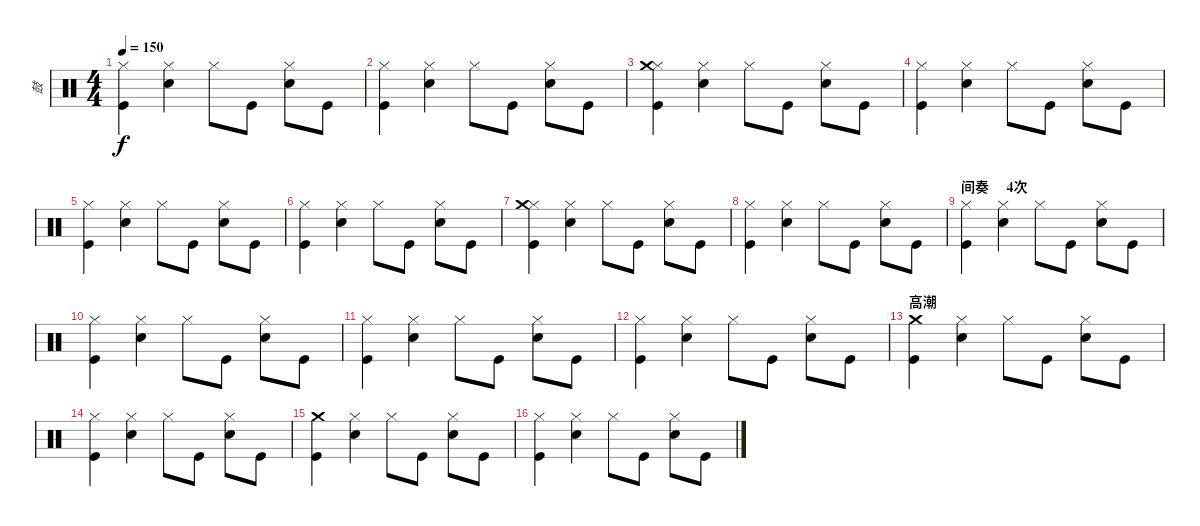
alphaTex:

\track ("鼓" "鼓") {instrument percussion}
\staff {score}
\articulation defaults
\ts (4 4)
\tempo 150
\clef neutral
\ks c
("Kick (hit)" "Hi-Hat (closed)").4{dy f} ("Snare (hit) 2" "Hi-Hat (closed)").4 "Hi-Hat (closed)".8 "Kick (hit)".8 ("Snare (hit) 2" "Hi-Hat (closed)").8 "Kick (hit)".8 |
("Kick (hit)" "Hi-Hat (closed)").4 ("Snare (hit) 2" "Hi-Hat (closed)").4 "Hi-Hat (closed)".8 "Kick (hit)".8 ("Snare (hit) 2" "Hi-Hat (closed)").8 "Kick (hit)".8 |
("Kick (hit)" "Hi-Hat (closed)" "Crash medium (hit)").4 ("Snare (hit) 2" "Hi-Hat (closed)").4 "Hi-Hat (closed)".8 "Kick (hit)".8 ("Snare (hit) 2" "Hi-Hat (closed)").8 "Kick (hit)".8 |
("Kick (hit)" "Hi-Hat (closed)").4 ("Snare (hit) 2" "Hi-Hat (closed)").4 "Hi-Hat (closed)".8 "Kick (hit)".8 ("Snare (hit) 2" "Hi-Hat (closed)").8 "Kick (hit)".8 |
("Kick (hit)" "Hi-Hat (closed)").4 ("Snare (hit) 2" "Hi-Hat (closed)").4 "Hi-Hat (closed)".8 "Kick (hit)".8 ("Snare (hit) 2" "Hi-Hat (closed)").8 "Kick (hit)".8 |
("Kick (hit)" "Hi-Hat (closed)").4 ("Snare (hit) 2" "Hi-Hat (closed)").4 "Hi-Hat (closed)".8 "Kick (hit)".8 ("Snare (hit) 2" "Hi-Hat (closed)").8 "Kick (hit)".8 |
("Kick (hit)" "Hi-Hat (closed)" "Crash medium (hit)").4 ("Snare (hit) 2" "Hi-Hat (closed)").4 "Hi-Hat (closed)".8 "Kick (hit)".8 ("Snare (hit) 2" "Hi-Hat (closed)").8 "Kick (hit)".8 |
("Kick (hit)" "Hi-Hat (closed)").4 ("Snare (hit) 2" "Hi-Hat (closed)").4 "Hi-Hat (closed)".8 "Kick (hit)".8 ("Snare (hit) 2" "Hi-Hat (closed)").8 "Kick (hit)".8 |
\section ("" "间奏     4次")
("Kick (hit)" "Hi-Hat (closed)").4 ("Snare (hit) 2" "Hi-Hat (closed)").4 "Hi-Hat (closed)".8 "Kick (hit)".8 ("Snare (hit) 2" "Hi-Hat (closed)").8 "Kick (hit)".8 |
("Kick (hit)" "Hi-Hat (closed)").4 ("Snare (hit) 2" "Hi-Hat (closed)").4 "Hi-Hat (closed)".8 "Kick (hit)".8 ("Snare (hit) 2" "Hi-Hat (closed)").8 "Kick (hit)".8 |
("Kick (hit)" "Hi-Hat (closed)").4 ("Snare (hit) 2" "Hi-Hat (closed)").4 "Hi-Hat (closed)".8 "Kick (hit)".8 ("Snare (hit) 2" "Hi-Hat (closed)").8 "Kick (hit)".8 |
("Kick (hit)" "Hi-Hat (closed)").4 ("Snare (hit) 2" "Hi-Hat (closed)").4 "Hi-Hat (closed)".8 "Kick (hit)".8 ("Snare (hit) 2" "Hi-Hat (closed)").8 "Kick (hit)".8 |
\section ("" "高潮")
("Kick (hit)" "Crash medium (hit)").4 ("Snare (hit) 2" "Hi-Hat (closed)").4 "Hi-Hat (closed)".8 "Kick (hit)".8 ("Snare (hit) 2" "Hi-Hat (closed)").8 "Kick (hit)".8 |
("Kick (hit)" "Hi-Hat (closed)").4 ("Snare (hit) 2" "Hi-Hat (closed)").4 "Hi-Hat (closed)".8 "Kick (hit)".8 ("Snare (hit) 2" "Hi-Hat (closed)").8 "Kick (hit)".8 |
("Kick (hit)" "Crash medium (hit)").4 ("Snare (hit) 2" "Hi-Hat (closed)").4 "Hi-Hat (closed)".8 "Kick (hit)".8 ("Snare (hit) 2" "Hi-Hat (closed)").8 "Kick (hit)".8 |
("Kick (hit)" "Hi-Hat (closed)").4 ("Snare (hit) 2" "Hi-Hat (closed)").4 "Hi-Hat (closed)".8 "Kick (hit)".8 ("Snare (hit) 2" "Hi-Hat (closed)").8 "Kick (hit)".8
